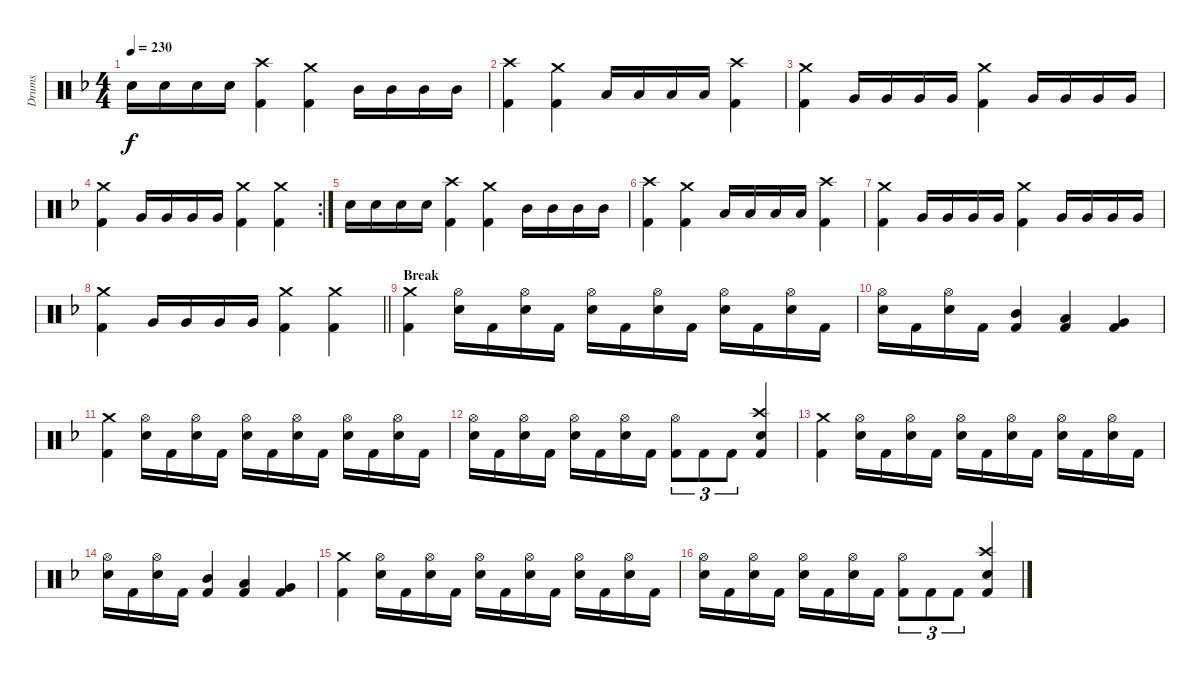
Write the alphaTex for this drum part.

\track ("Drums" "Drums") {instrument percussion}
\staff {score}
\articulation defaults
\ts (4 4)
\tempo 230
\clef neutral
\ks f "Snare (hit) 2".16{dy f} "Snare (hit) 2".16 "Snare (hit) 2".16 "Snare (hit) 2".16
("Crash high (hit)" "Kick (hit) 2").4 ("Crash medium (hit)" "Kick (hit) 2").4 "Mid Tom (hit)".16 "Mid Tom (hit)".16 "Mid Tom (hit)".16 "Mid Tom (hit)".16 |
("Crash high (hit)" "Kick (hit) 2").4 ("Crash medium (hit)" "Kick (hit) 2").4 "Low Tom (hit)".16 "Low Tom (hit)".16 "Low Tom (hit)".16 "Low Tom (hit)".16 ("Crash high (hit)" "Kick (hit) 2").4 |
("Crash medium (hit)" "Kick (hit) 2").4 "Very Low Tom (hit)".16 "Very Low Tom (hit)".16 "Very Low Tom (hit)".16 "Very Low Tom (hit)".16 ("Crash medium (hit)" "Kick (hit) 2").4 "Very Low Tom (hit)".16 "Very Low Tom (hit)".16 "Very Low Tom (hit)".16 "Very Low Tom (hit)".16 |
\rc 2
("Crash medium (hit)" "Kick (hit) 2").4 "Very Low Tom (hit)".16 "Very Low Tom (hit)".16 "Very Low Tom (hit)".16 "Very Low Tom (hit)".16 ("Crash medium (hit)" "Kick (hit) 2").4 ("Crash medium (hit)" "Kick (hit) 2").4 |
"Snare (hit) 2".16 "Snare (hit) 2".16 "Snare (hit) 2".16 "Snare (hit) 2".16 ("Crash high (hit)" "Kick (hit) 2").4 ("Crash medium (hit)" "Kick (hit) 2").4 "Mid Tom (hit)".16 "Mid Tom (hit)".16 "Mid Tom (hit)".16 "Mid Tom (hit)".16 |
("Crash high (hit)" "Kick (hit) 2").4 ("Crash medium (hit)" "Kick (hit) 2").4 "Low Tom (hit)".16 "Low Tom (hit)".16 "Low Tom (hit)".16 "Low Tom (hit)".16 ("Crash high (hit)" "Kick (hit) 2").4 |
("Crash medium (hit)" "Kick (hit) 2").4 "Very Low Tom (hit)".16 "Very Low Tom (hit)".16 "Very Low Tom (hit)".16 "Very Low Tom (hit)".16 ("Crash medium (hit)" "Kick (hit) 2").4 "Very Low Tom (hit)".16 "Very Low Tom (hit)".16 "Very Low Tom (hit)".16 "Very Low Tom (hit)".16 |
\barLineRight lightlight
("Crash medium (hit)" "Kick (hit) 2").4 "Very Low Tom (hit)".16 "Very Low Tom (hit)".16 "Very Low Tom (hit)".16 "Very Low Tom (hit)".16 ("Crash medium (hit)" "Kick (hit) 2").4 ("Crash medium (hit)" "Kick (hit) 2").4 |
\section ("" "Break")
("Crash medium (hit)" "Kick (hit) 2").4 ("Hi-Hat (open)" "Snare (hit) 2").16 "Kick (hit) 2".16 ("Hi-Hat (open)" "Snare (hit) 2").16 "Kick (hit) 2".16 ("Hi-Hat (open)" "Snare (hit) 2").16 "Kick (hit) 2".16 ("Hi-Hat (open)" "Snare (hit) 2").16 "Kick (hit) 2".16 ("Hi-Hat (open)" "Snare (hit) 2").16 "Kick (hit) 2".16 ("Hi-Hat (open)" "Snare (hit) 2").16 "Kick (hit) 2".16 |
("Hi-Hat (open)" "Snare (hit) 2").16 "Kick (hit) 2".16 ("Hi-Hat (open)" "Snare (hit) 2").16 "Kick (hit) 2".16 ("Mid Tom (hit)" "Kick (hit) 2").4 ("Low Tom (hit)" "Kick (hit) 2").4 ("Very Low Tom (hit)" "Kick (hit) 2").4 |
("Crash medium (hit)" "Kick (hit) 2").4 ("Hi-Hat (open)" "Snare (hit) 2").16 "Kick (hit) 2".16 ("Hi-Hat (open)" "Snare (hit) 2").16 "Kick (hit) 2".16 ("Hi-Hat (open)" "Snare (hit) 2").16 "Kick (hit) 2".16 ("Hi-Hat (open)" "Snare (hit) 2").16 "Kick (hit) 2".16 ("Hi-Hat (open)" "Snare (hit) 2").16 "Kick (hit) 2".16 ("Hi-Hat (open)" "Snare (hit) 2").16 "Kick (hit) 2".16 |
("Hi-Hat (open)" "Snare (hit) 2").16 "Kick (hit) 2".16 ("Hi-Hat (open)" "Snare (hit) 2").16 "Kick (hit) 2".16 ("Hi-Hat (open)" "Snare (hit) 2").16 "Kick (hit) 2".16 ("Hi-Hat (open)" "Snare (hit) 2").16 "Kick (hit) 2".16 ("Hi-Hat (open)" "Kick (hit) 2").8{tu (3 2)} "Kick (hit) 2".8{tu (3 2)} "Kick (hit) 2".8{tu (3 2)} ("Crash high (hit)" "Snare (hit) 2" "Kick (hit) 2").4 |
("Crash medium (hit)" "Kick (hit) 2").4 ("Hi-Hat (open)" "Snare (hit) 2").16 "Kick (hit) 2".16 ("Hi-Hat (open)" "Snare (hit) 2").16 "Kick (hit) 2".16 ("Hi-Hat (open)" "Snare (hit) 2").16 "Kick (hit) 2".16 ("Hi-Hat (open)" "Snare (hit) 2").16 "Kick (hit) 2".16 ("Hi-Hat (open)" "Snare (hit) 2").16 "Kick (hit) 2".16 ("Hi-Hat (open)" "Snare (hit) 2").16 "Kick (hit) 2".16 |
("Hi-Hat (open)" "Snare (hit) 2").16 "Kick (hit) 2".16 ("Hi-Hat (open)" "Snare (hit) 2").16 "Kick (hit) 2".16 ("Mid Tom (hit)" "Kick (hit) 2").4 ("Low Tom (hit)" "Kick (hit) 2").4 ("Very Low Tom (hit)" "Kick (hit) 2").4 |
("Crash medium (hit)" "Kick (hit) 2").4 ("Hi-Hat (open)" "Snare (hit) 2").16 "Kick (hit) 2".16 ("Hi-Hat (open)" "Snare (hit) 2").16 "Kick (hit) 2".16 ("Hi-Hat (open)" "Snare (hit) 2").16 "Kick (hit) 2".16 ("Hi-Hat (open)" "Snare (hit) 2").16 "Kick (hit) 2".16 ("Hi-Hat (open)" "Snare (hit) 2").16 "Kick (hit) 2".16 ("Hi-Hat (open)" "Snare (hit) 2").16 "Kick (hit) 2".16 |
("Hi-Hat (open)" "Snare (hit) 2").16 "Kick (hit) 2".16 ("Hi-Hat (open)" "Snare (hit) 2").16 "Kick (hit) 2".16 ("Hi-Hat (open)" "Snare (hit) 2").16 "Kick (hit) 2".16 ("Hi-Hat (open)" "Snare (hit) 2").16 "Kick (hit) 2".16 ("Hi-Hat (open)" "Kick (hit) 2").8{tu (3 2)} "Kick (hit) 2".8{tu (3 2)} "Kick (hit) 2".8{tu (3 2)} ("Crash high (hit)" "Snare (hit) 2" "Kick (hit) 2").4
